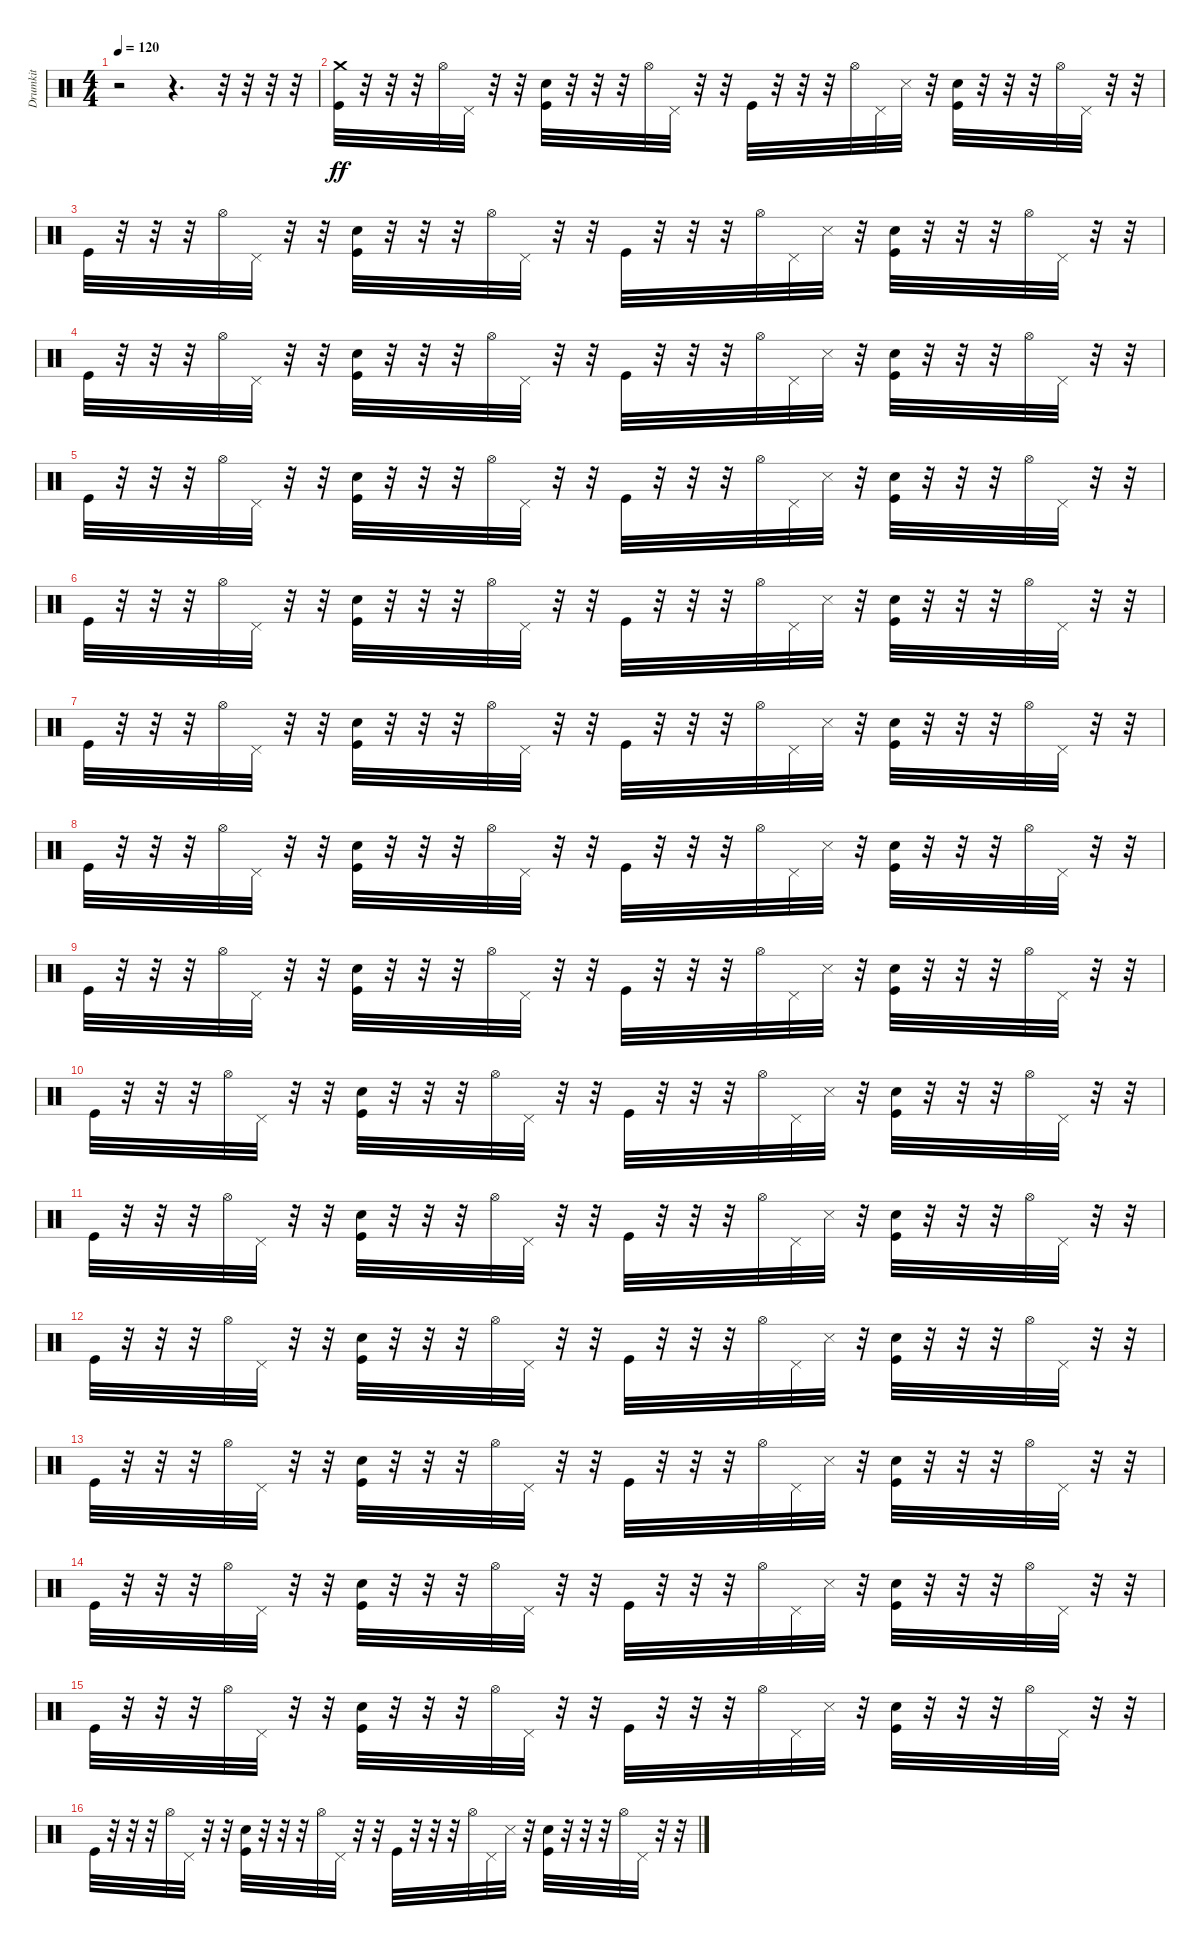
\track ("Drumkit" "Drumkit") {instrument percussion}
\staff {score}
\articulation defaults
\ts (4 4)
\tempo 120
\clef neutral
\ks c
r.2{dy ff} r.4{d} r.32 r.32 r.32 r.32 |
("Crash medium (hit)" "Kick (hit)").32 r.32 r.32 r.32 "Hi-Hat (open)".32 "Pedal Hi-Hat (hit)".32 r.32 r.32 ("Snare (hit) 2" "Kick (hit)").32 r.32 r.32 r.32 "Hi-Hat (open)".32 "Pedal Hi-Hat (hit)".32 r.32 r.32 "Kick (hit)".32 r.32 r.32 r.32 "Hi-Hat (open)".32 "Pedal Hi-Hat (hit)".32 "Snare (side stick) 3".32 r.32 ("Snare (hit) 2" "Kick (hit)").32 r.32 r.32 r.32 "Hi-Hat (open)".32 "Pedal Hi-Hat (hit)".32 r.32 r.32 |
"Kick (hit)".32 r.32 r.32 r.32 "Hi-Hat (open)".32 "Pedal Hi-Hat (hit)".32 r.32 r.32 ("Snare (hit) 2" "Kick (hit)").32 r.32 r.32 r.32 "Hi-Hat (open)".32 "Pedal Hi-Hat (hit)".32 r.32 r.32 "Kick (hit)".32 r.32 r.32 r.32 "Hi-Hat (open)".32 "Pedal Hi-Hat (hit)".32 "Snare (side stick) 3".32 r.32 ("Snare (hit) 2" "Kick (hit)").32 r.32 r.32 r.32 "Hi-Hat (open)".32 "Pedal Hi-Hat (hit)".32 r.32 r.32 |
"Kick (hit)".32 r.32 r.32 r.32 "Hi-Hat (open)".32 "Pedal Hi-Hat (hit)".32 r.32 r.32 ("Snare (hit) 2" "Kick (hit)").32 r.32 r.32 r.32 "Hi-Hat (open)".32 "Pedal Hi-Hat (hit)".32 r.32 r.32 "Kick (hit)".32 r.32 r.32 r.32 "Hi-Hat (open)".32 "Pedal Hi-Hat (hit)".32 "Snare (side stick) 3".32 r.32 ("Snare (hit) 2" "Kick (hit)").32 r.32 r.32 r.32 "Hi-Hat (open)".32 "Pedal Hi-Hat (hit)".32 r.32 r.32 |
"Kick (hit)".32 r.32 r.32 r.32 "Hi-Hat (open)".32 "Pedal Hi-Hat (hit)".32 r.32 r.32 ("Snare (hit) 2" "Kick (hit)").32 r.32 r.32 r.32 "Hi-Hat (open)".32 "Pedal Hi-Hat (hit)".32 r.32 r.32 "Kick (hit)".32 r.32 r.32 r.32 "Hi-Hat (open)".32 "Pedal Hi-Hat (hit)".32 "Snare (side stick) 3".32 r.32 ("Kick (hit)" "Snare (hit) 2").32 r.32 r.32 r.32 "Hi-Hat (open)".32 "Pedal Hi-Hat (hit)".32 r.32 r.32 |
"Kick (hit)".32 r.32 r.32 r.32 "Hi-Hat (open)".32 "Pedal Hi-Hat (hit)".32 r.32 r.32 ("Kick (hit)" "Snare (hit) 2").32 r.32 r.32 r.32 "Hi-Hat (open)".32 "Pedal Hi-Hat (hit)".32 r.32 r.32 "Kick (hit)".32 r.32 r.32 r.32 "Hi-Hat (open)".32 "Pedal Hi-Hat (hit)".32 "Snare (side stick) 3".32 r.32 ("Snare (hit) 2" "Kick (hit)").32 r.32 r.32 r.32 "Hi-Hat (open)".32 "Pedal Hi-Hat (hit)".32 r.32 r.32 |
"Kick (hit)".32 r.32 r.32 r.32 "Hi-Hat (open)".32 "Pedal Hi-Hat (hit)".32 r.32 r.32 ("Snare (hit) 2" "Kick (hit)").32 r.32 r.32 r.32 "Hi-Hat (open)".32 "Pedal Hi-Hat (hit)".32 r.32 r.32 "Kick (hit)".32 r.32 r.32 r.32 "Hi-Hat (open)".32 "Pedal Hi-Hat (hit)".32 "Snare (side stick) 3".32 r.32 ("Kick (hit)" "Snare (hit) 2").32 r.32 r.32 r.32 "Hi-Hat (open)".32 "Pedal Hi-Hat (hit)".32 r.32 r.32 |
"Kick (hit)".32 r.32 r.32 r.32 "Hi-Hat (open)".32 "Pedal Hi-Hat (hit)".32 r.32 r.32 ("Kick (hit)" "Snare (hit) 2").32 r.32 r.32 r.32 "Hi-Hat (open)".32 "Pedal Hi-Hat (hit)".32 r.32 r.32 "Kick (hit)".32 r.32 r.32 r.32 "Hi-Hat (open)".32 "Pedal Hi-Hat (hit)".32 "Snare (side stick) 3".32 r.32 ("Snare (hit) 2" "Kick (hit)").32 r.32 r.32 r.32 "Hi-Hat (open)".32 "Pedal Hi-Hat (hit)".32 r.32 r.32 |
"Kick (hit)".32 r.32 r.32 r.32 "Hi-Hat (open)".32 "Pedal Hi-Hat (hit)".32 r.32 r.32 ("Kick (hit)" "Snare (hit) 2").32 r.32 r.32 r.32 "Hi-Hat (open)".32 "Pedal Hi-Hat (hit)".32 r.32 r.32 "Kick (hit)".32 r.32 r.32 r.32 "Hi-Hat (open)".32 "Pedal Hi-Hat (hit)".32 "Snare (side stick) 3".32 r.32 ("Kick (hit)" "Snare (hit) 2").32 r.32 r.32 r.32 "Hi-Hat (open)".32 "Pedal Hi-Hat (hit)".32 r.32 r.32 |
"Kick (hit)".32 r.32 r.32 r.32 "Hi-Hat (open)".32 "Pedal Hi-Hat (hit)".32 r.32 r.32 ("Snare (hit) 2" "Kick (hit)").32 r.32 r.32 r.32 "Hi-Hat (open)".32 "Pedal Hi-Hat (hit)".32 r.32 r.32 "Kick (hit)".32 r.32 r.32 r.32 "Hi-Hat (open)".32 "Pedal Hi-Hat (hit)".32 "Snare (side stick) 3".32 r.32 ("Kick (hit)" "Snare (hit) 2").32 r.32 r.32 r.32 "Hi-Hat (open)".32 "Pedal Hi-Hat (hit)".32 r.32 r.32 |
"Kick (hit)".32 r.32 r.32 r.32 "Hi-Hat (open)".32 "Pedal Hi-Hat (hit)".32 r.32 r.32 ("Snare (hit) 2" "Kick (hit)").32 r.32 r.32 r.32 "Hi-Hat (open)".32 "Pedal Hi-Hat (hit)".32 r.32 r.32 "Kick (hit)".32 r.32 r.32 r.32 "Hi-Hat (open)".32 "Pedal Hi-Hat (hit)".32 "Snare (side stick) 3".32 r.32 ("Snare (hit) 2" "Kick (hit)").32 r.32 r.32 r.32 "Hi-Hat (open)".32 "Pedal Hi-Hat (hit)".32 r.32 r.32 |
"Kick (hit)".32 r.32 r.32 r.32 "Hi-Hat (open)".32 "Pedal Hi-Hat (hit)".32 r.32 r.32 ("Snare (hit) 2" "Kick (hit)").32 r.32 r.32 r.32 "Hi-Hat (open)".32 "Pedal Hi-Hat (hit)".32 r.32 r.32 "Kick (hit)".32 r.32 r.32 r.32 "Hi-Hat (open)".32 "Pedal Hi-Hat (hit)".32 "Snare (side stick) 3".32 r.32 ("Kick (hit)" "Snare (hit) 2").32 r.32 r.32 r.32 "Hi-Hat (open)".32 "Pedal Hi-Hat (hit)".32 r.32 r.32 |
"Kick (hit)".32 r.32 r.32 r.32 "Hi-Hat (open)".32 "Pedal Hi-Hat (hit)".32 r.32 r.32 ("Kick (hit)" "Snare (hit) 2").32 r.32 r.32 r.32 "Hi-Hat (open)".32 "Pedal Hi-Hat (hit)".32 r.32 r.32 "Kick (hit)".32 r.32 r.32 r.32 "Hi-Hat (open)".32 "Pedal Hi-Hat (hit)".32 "Snare (side stick) 3".32 r.32 ("Kick (hit)" "Snare (hit) 2").32 r.32 r.32 r.32 "Hi-Hat (open)".32 "Pedal Hi-Hat (hit)".32 r.32 r.32 |
"Kick (hit)".32 r.32 r.32 r.32 "Hi-Hat (open)".32 "Pedal Hi-Hat (hit)".32 r.32 r.32 ("Snare (hit) 2" "Kick (hit)").32 r.32 r.32 r.32 "Hi-Hat (open)".32 "Pedal Hi-Hat (hit)".32 r.32 r.32 "Kick (hit)".32 r.32 r.32 r.32 "Hi-Hat (open)".32 "Pedal Hi-Hat (hit)".32 "Snare (side stick) 3".32 r.32 ("Kick (hit)" "Snare (hit) 2").32 r.32 r.32 r.32 "Hi-Hat (open)".32 "Pedal Hi-Hat (hit)".32 r.32 r.32 |
"Kick (hit)".32 r.32 r.32 r.32 "Hi-Hat (open)".32 "Pedal Hi-Hat (hit)".32 r.32 r.32 ("Snare (hit) 2" "Kick (hit)").32 r.32 r.32 r.32 "Hi-Hat (open)".32 "Pedal Hi-Hat (hit)".32 r.32 r.32 "Kick (hit)".32 r.32 r.32 r.32 "Hi-Hat (open)".32 "Pedal Hi-Hat (hit)".32 "Snare (side stick) 3".32 r.32 ("Snare (hit) 2" "Kick (hit)").32 r.32 r.32 r.32 "Hi-Hat (open)".32 "Pedal Hi-Hat (hit)".32 r.32 r.32 |
"Kick (hit)".32 r.32 r.32 r.32 "Hi-Hat (open)".32 "Pedal Hi-Hat (hit)".32 r.32 r.32 ("Snare (hit) 2" "Kick (hit)").32 r.32 r.32 r.32 "Hi-Hat (open)".32 "Pedal Hi-Hat (hit)".32 r.32 r.32 "Kick (hit)".32 r.32 r.32 r.32 "Hi-Hat (open)".32 "Pedal Hi-Hat (hit)".32 "Snare (side stick) 3".32 r.32 ("Kick (hit)" "Snare (hit) 2").32 r.32 r.32 r.32 "Hi-Hat (open)".32 "Pedal Hi-Hat (hit)".32 r.32 r.32
